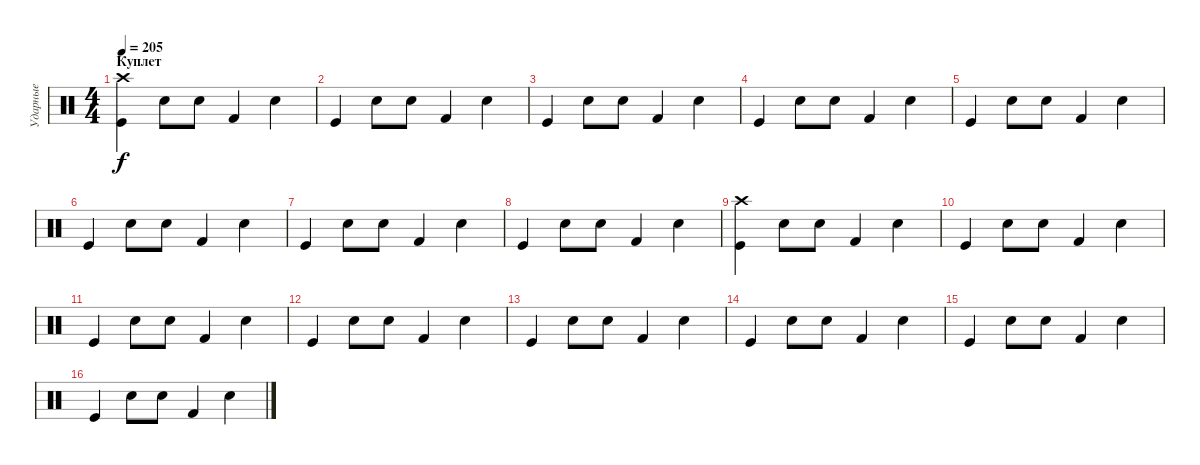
\track ("Ударные" "Ударные") {instrument percussion}
\staff {score}
\articulation defaults
\ts (4 4)
\section ("" "Куплет")
\tempo 205
\clef neutral
\ks c
("Kick (hit)" "Crash high (hit)").4{dy f} "Snare (hit) 2".8 "Snare (hit) 2".8 "Kick (hit) 2".4 "Snare (hit) 2".4 |
"Kick (hit)".4 "Snare (hit) 2".8 "Snare (hit) 2".8 "Kick (hit) 2".4 "Snare (hit) 2".4 |
"Kick (hit)".4 "Snare (hit) 2".8 "Snare (hit) 2".8 "Kick (hit) 2".4 "Snare (hit) 2".4 |
"Kick (hit)".4 "Snare (hit) 2".8 "Snare (hit) 2".8 "Kick (hit) 2".4 "Snare (hit) 2".4 |
"Kick (hit)".4 "Snare (hit) 2".8 "Snare (hit) 2".8 "Kick (hit) 2".4 "Snare (hit) 2".4 |
"Kick (hit)".4 "Snare (hit) 2".8 "Snare (hit) 2".8 "Kick (hit) 2".4 "Snare (hit) 2".4 |
"Kick (hit)".4 "Snare (hit) 2".8 "Snare (hit) 2".8 "Kick (hit) 2".4 "Snare (hit) 2".4 |
"Kick (hit)".4 "Snare (hit) 2".8 "Snare (hit) 2".8 "Kick (hit) 2".4 "Snare (hit) 2".4 |
("Kick (hit)" "Crash high (hit)").4 "Snare (hit) 2".8 "Snare (hit) 2".8 "Kick (hit) 2".4 "Snare (hit) 2".4 |
"Kick (hit)".4 "Snare (hit) 2".8 "Snare (hit) 2".8 "Kick (hit) 2".4 "Snare (hit) 2".4 |
"Kick (hit)".4 "Snare (hit) 2".8 "Snare (hit) 2".8 "Kick (hit) 2".4 "Snare (hit) 2".4 |
"Kick (hit)".4 "Snare (hit) 2".8 "Snare (hit) 2".8 "Kick (hit) 2".4 "Snare (hit) 2".4 |
"Kick (hit)".4 "Snare (hit) 2".8 "Snare (hit) 2".8 "Kick (hit) 2".4 "Snare (hit) 2".4 |
"Kick (hit)".4 "Snare (hit) 2".8 "Snare (hit) 2".8 "Kick (hit) 2".4 "Snare (hit) 2".4 |
"Kick (hit)".4 "Snare (hit) 2".8 "Snare (hit) 2".8 "Kick (hit) 2".4 "Snare (hit) 2".4 |
"Kick (hit)".4 "Snare (hit) 2".8 "Snare (hit) 2".8 "Kick (hit) 2".4 "Snare (hit) 2".4
